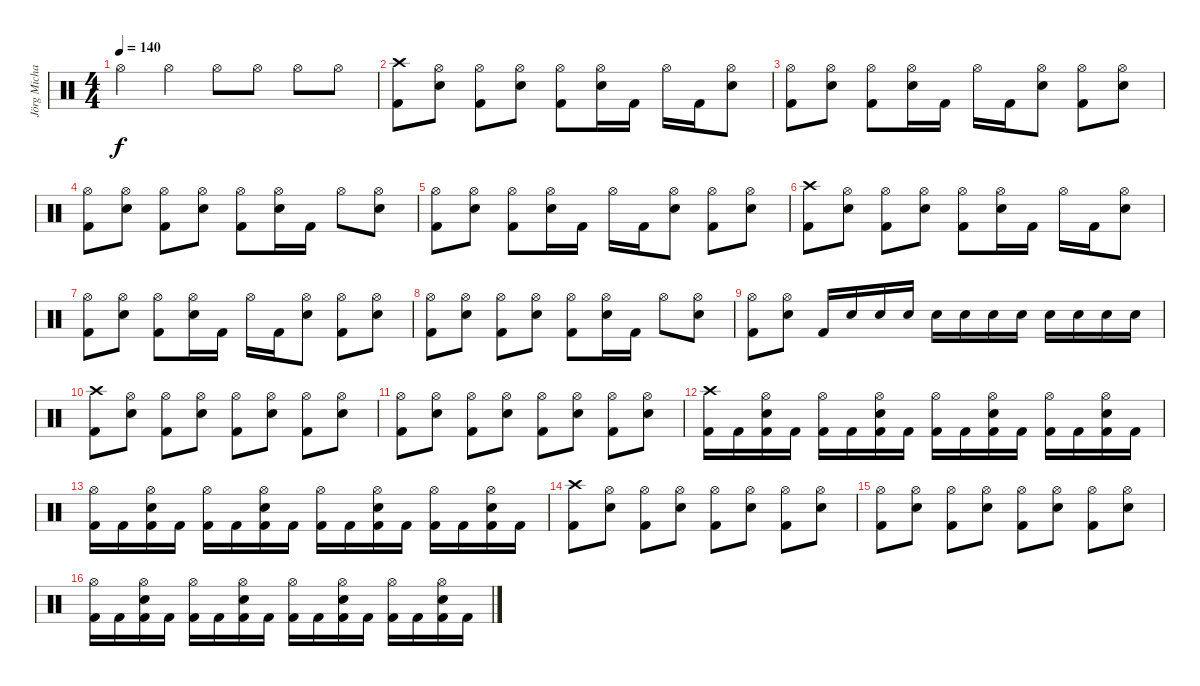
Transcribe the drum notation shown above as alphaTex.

\track ("Jörg Michael" "Jörg Micha") {instrument percussion}
\staff {score}
\articulation defaults
\ts (4 4)
\tempo 140
\clef neutral
\ks c "Hi-Hat (open)".4{dy f} "Hi-Hat (open)".4 "Hi-Hat (open)".8 "Hi-Hat (open)".8 "Hi-Hat (open)".8 "Hi-Hat (open)".8
|
("Crash high (hit)" "Kick (hit) 2").8 ("Hi-Hat (open)" "Electric Snare (hit)").8 ("Hi-Hat (open)" "Kick (hit) 2").8 ("Hi-Hat (open)" "Electric Snare (hit)").8 ("Hi-Hat (open)" "Kick (hit) 2").8 ("Hi-Hat (open)" "Electric Snare (hit)").16 "Kick (hit) 2".16 "Hi-Hat (open)".16 "Kick (hit) 2".16 ("Hi-Hat (open)" "Electric Snare (hit)").8 |
("Hi-Hat (open)" "Kick (hit) 2").8 ("Hi-Hat (open)" "Electric Snare (hit)").8 ("Hi-Hat (open)" "Kick (hit) 2").8 ("Hi-Hat (open)" "Electric Snare (hit)").16 "Kick (hit) 2".16 "Hi-Hat (open)".16 "Kick (hit) 2".16 ("Electric Snare (hit)" "Hi-Hat (open)").8 ("Hi-Hat (open)" "Kick (hit) 2").8 ("Hi-Hat (open)" "Electric Snare (hit)").8 |
("Hi-Hat (open)" "Kick (hit) 2").8 ("Hi-Hat (open)" "Electric Snare (hit)").8 ("Hi-Hat (open)" "Kick (hit) 2").8 ("Hi-Hat (open)" "Electric Snare (hit)").8 ("Hi-Hat (open)" "Kick (hit) 2").8 ("Hi-Hat (open)" "Electric Snare (hit)").16 "Kick (hit) 2".16 "Hi-Hat (open)".8 ("Hi-Hat (open)" "Electric Snare (hit)").8 |
("Hi-Hat (open)" "Kick (hit) 2").8 ("Hi-Hat (open)" "Electric Snare (hit)").8 ("Hi-Hat (open)" "Kick (hit) 2").8 ("Hi-Hat (open)" "Electric Snare (hit)").16 "Kick (hit) 2".16 "Hi-Hat (open)".16 "Kick (hit) 2".16 ("Hi-Hat (open)" "Electric Snare (hit)").8 ("Hi-Hat (open)" "Kick (hit) 2").8 ("Hi-Hat (open)" "Electric Snare (hit)").8 |
("Crash high (hit)" "Kick (hit) 2").8 ("Hi-Hat (open)" "Electric Snare (hit)").8 ("Hi-Hat (open)" "Kick (hit) 2").8 ("Hi-Hat (open)" "Electric Snare (hit)").8 ("Hi-Hat (open)" "Kick (hit) 2").8 ("Hi-Hat (open)" "Electric Snare (hit)").16 "Kick (hit) 2".16 "Hi-Hat (open)".16 "Kick (hit) 2".16 ("Hi-Hat (open)" "Electric Snare (hit)").8 |
("Hi-Hat (open)" "Kick (hit) 2").8 ("Hi-Hat (open)" "Electric Snare (hit)").8 ("Hi-Hat (open)" "Kick (hit) 2").8 ("Hi-Hat (open)" "Electric Snare (hit)").16 "Kick (hit) 2".16 "Hi-Hat (open)".16 "Kick (hit) 2".16 ("Electric Snare (hit)" "Hi-Hat (open)").8 ("Hi-Hat (open)" "Kick (hit) 2").8 ("Hi-Hat (open)" "Electric Snare (hit)").8 |
("Hi-Hat (open)" "Kick (hit) 2").8 ("Hi-Hat (open)" "Electric Snare (hit)").8 ("Hi-Hat (open)" "Kick (hit) 2").8 ("Hi-Hat (open)" "Electric Snare (hit)").8 ("Hi-Hat (open)" "Kick (hit) 2").8 ("Hi-Hat (open)" "Electric Snare (hit)").16 "Kick (hit) 2".16 "Hi-Hat (open)".8 ("Hi-Hat (open)" "Electric Snare (hit)").8 |
("Hi-Hat (open)" "Kick (hit) 2").8 ("Hi-Hat (open)" "Electric Snare (hit)").8 "Kick (hit) 2".16 "Electric Snare (hit)".16 "Electric Snare (hit)".16 "Electric Snare (hit)".16 "Electric Snare (hit)".16 "Electric Snare (hit)".16 "Electric Snare (hit)".16 "Electric Snare (hit)".16 "Electric Snare (hit)".16 "Electric Snare (hit)".16 "Electric Snare (hit)".16 "Electric Snare (hit)".16 |
("Crash high (hit)" "Kick (hit) 2").8 ("Hi-Hat (open)" "Electric Snare (hit)").8 ("Hi-Hat (open)" "Kick (hit) 2").8 ("Hi-Hat (open)" "Electric Snare (hit)").8 ("Hi-Hat (open)" "Kick (hit) 2").8 ("Hi-Hat (open)" "Electric Snare (hit)").8 ("Hi-Hat (open)" "Kick (hit) 2").8 ("Hi-Hat (open)" "Electric Snare (hit)").8 |
("Hi-Hat (open)" "Kick (hit) 2").8 ("Hi-Hat (open)" "Electric Snare (hit)").8 ("Hi-Hat (open)" "Kick (hit) 2").8 ("Hi-Hat (open)" "Electric Snare (hit)").8 ("Hi-Hat (open)" "Kick (hit) 2").8 ("Hi-Hat (open)" "Electric Snare (hit)").8 ("Hi-Hat (open)" "Kick (hit) 2").8 ("Hi-Hat (open)" "Electric Snare (hit)").8 |
("Crash high (hit)" "Kick (hit) 2").16 "Kick (hit) 2".16 ("Electric Snare (hit)" "Kick (hit) 2" "Hi-Hat (open)").16 "Kick (hit) 2".16 ("Kick (hit) 2" "Hi-Hat (open)").16 "Kick (hit) 2".16 ("Electric Snare (hit)" "Kick (hit) 2" "Hi-Hat (open)").16 "Kick (hit) 2".16 ("Kick (hit) 2" "Hi-Hat (open)").16 "Kick (hit) 2".16 ("Electric Snare (hit)" "Kick (hit) 2" "Hi-Hat (open)").16 "Kick (hit) 2".16 ("Kick (hit) 2" "Hi-Hat (open)").16 "Kick (hit) 2".16 ("Electric Snare (hit)" "Kick (hit) 2" "Hi-Hat (open)").16 "Kick (hit) 2".16 |
("Hi-Hat (open)" "Kick (hit) 2").16 "Kick (hit) 2".16 ("Electric Snare (hit)" "Kick (hit) 2" "Hi-Hat (open)").16 "Kick (hit) 2".16 ("Kick (hit) 2" "Hi-Hat (open)").16 "Kick (hit) 2".16 ("Electric Snare (hit)" "Kick (hit) 2" "Hi-Hat (open)").16 "Kick (hit) 2".16 ("Kick (hit) 2" "Hi-Hat (open)").16 "Kick (hit) 2".16 ("Electric Snare (hit)" "Kick (hit) 2" "Hi-Hat (open)").16 "Kick (hit) 2".16 ("Kick (hit) 2" "Hi-Hat (open)").16 "Kick (hit) 2".16 ("Electric Snare (hit)" "Kick (hit) 2" "Hi-Hat (open)").16 "Kick (hit) 2".16 |
("Crash high (hit)" "Kick (hit) 2").8 ("Hi-Hat (open)" "Electric Snare (hit)").8 ("Hi-Hat (open)" "Kick (hit) 2").8 ("Hi-Hat (open)" "Electric Snare (hit)").8 ("Hi-Hat (open)" "Kick (hit) 2").8 ("Hi-Hat (open)" "Electric Snare (hit)").8 ("Hi-Hat (open)" "Kick (hit) 2").8 ("Hi-Hat (open)" "Electric Snare (hit)").8 |
("Hi-Hat (open)" "Kick (hit) 2").8 ("Hi-Hat (open)" "Electric Snare (hit)").8 ("Hi-Hat (open)" "Kick (hit) 2").8 ("Hi-Hat (open)" "Electric Snare (hit)").8 ("Hi-Hat (open)" "Kick (hit) 2").8 ("Hi-Hat (open)" "Electric Snare (hit)").8 ("Hi-Hat (open)" "Kick (hit) 2").8 ("Hi-Hat (open)" "Electric Snare (hit)").8 |
("Hi-Hat (open)" "Kick (hit) 2").16 "Kick (hit) 2".16 ("Electric Snare (hit)" "Kick (hit) 2" "Hi-Hat (open)").16 "Kick (hit) 2".16 ("Kick (hit) 2" "Hi-Hat (open)").16 "Kick (hit) 2".16 ("Electric Snare (hit)" "Kick (hit) 2" "Hi-Hat (open)").16 "Kick (hit) 2".16 ("Kick (hit) 2" "Hi-Hat (open)").16 "Kick (hit) 2".16 ("Electric Snare (hit)" "Kick (hit) 2" "Hi-Hat (open)").16 "Kick (hit) 2".16 ("Kick (hit) 2" "Hi-Hat (open)").16 "Kick (hit) 2".16 ("Electric Snare (hit)" "Kick (hit) 2" "Hi-Hat (open)").16 "Kick (hit) 2".16
